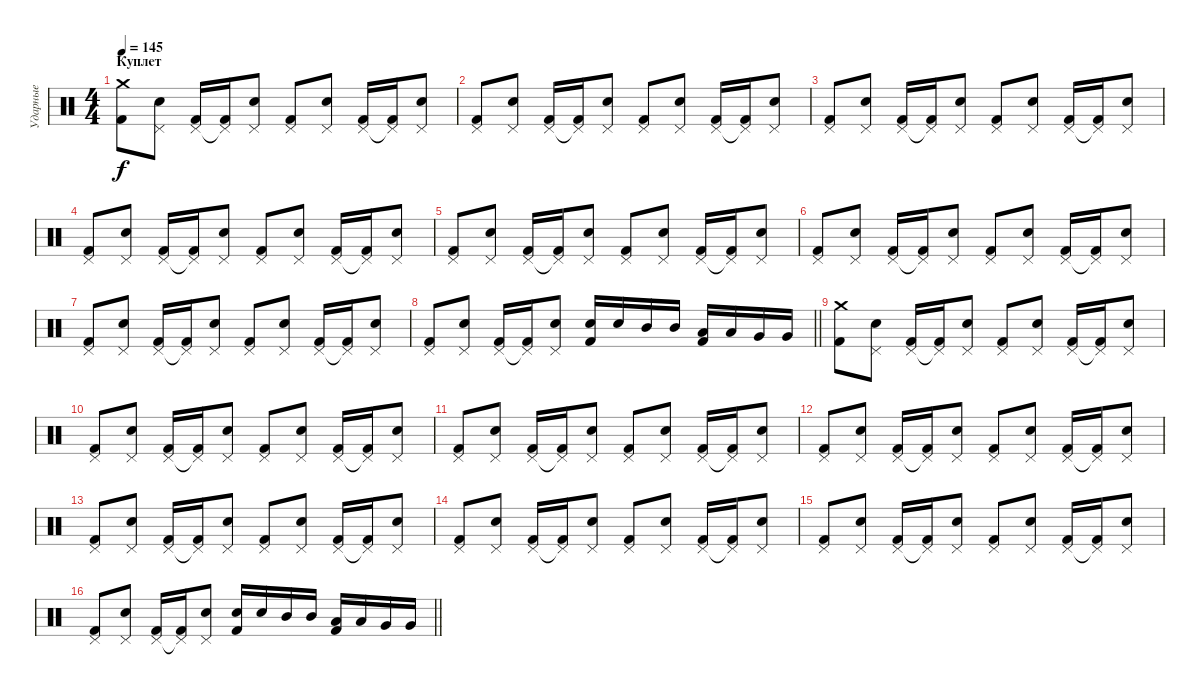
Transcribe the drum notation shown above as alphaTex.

\track ("Ударные" "Ударные") {instrument percussion}
\staff {score}
\articulation defaults
\ts (4 4)
\section ("" "Куплет")
\tempo 145
\clef neutral
\ks c
("Crash medium (hit)" "Kick (hit) 2").8{dy f} ("Pedal Hi-Hat (hit)" "Electric Snare (hit)").8 ("Pedal Hi-Hat (hit)" "Kick (hit) 2").16 ("Pedal Hi-Hat (hit)"{t} "Kick (hit) 2").16 ("Pedal Hi-Hat (hit)" "Electric Snare (hit)").8 ("Pedal Hi-Hat (hit)" "Kick (hit) 2").8 ("Pedal Hi-Hat (hit)" "Electric Snare (hit)").8 ("Pedal Hi-Hat (hit)" "Kick (hit) 2").16 ("Pedal Hi-Hat (hit)"{t} "Kick (hit) 2").16 ("Pedal Hi-Hat (hit)" "Electric Snare (hit)").8 |
("Pedal Hi-Hat (hit)" "Kick (hit) 2").8 ("Pedal Hi-Hat (hit)" "Electric Snare (hit)").8 ("Pedal Hi-Hat (hit)" "Kick (hit) 2").16 ("Pedal Hi-Hat (hit)"{t} "Kick (hit) 2").16 ("Pedal Hi-Hat (hit)" "Electric Snare (hit)").8 ("Pedal Hi-Hat (hit)" "Kick (hit) 2").8 ("Pedal Hi-Hat (hit)" "Electric Snare (hit)").8 ("Pedal Hi-Hat (hit)" "Kick (hit) 2").16 ("Pedal Hi-Hat (hit)"{t} "Kick (hit) 2").16 ("Pedal Hi-Hat (hit)" "Electric Snare (hit)").8 |
("Pedal Hi-Hat (hit)" "Kick (hit) 2").8 ("Pedal Hi-Hat (hit)" "Electric Snare (hit)").8 ("Pedal Hi-Hat (hit)" "Kick (hit) 2").16 ("Pedal Hi-Hat (hit)"{t} "Kick (hit) 2").16 ("Pedal Hi-Hat (hit)" "Electric Snare (hit)").8 ("Pedal Hi-Hat (hit)" "Kick (hit) 2").8 ("Pedal Hi-Hat (hit)" "Electric Snare (hit)").8 ("Pedal Hi-Hat (hit)" "Kick (hit) 2").16 ("Pedal Hi-Hat (hit)"{t} "Kick (hit) 2").16 ("Pedal Hi-Hat (hit)" "Electric Snare (hit)").8 |
("Pedal Hi-Hat (hit)" "Kick (hit) 2").8 ("Pedal Hi-Hat (hit)" "Electric Snare (hit)").8 ("Pedal Hi-Hat (hit)" "Kick (hit) 2").16 ("Pedal Hi-Hat (hit)"{t} "Kick (hit) 2").16 ("Pedal Hi-Hat (hit)" "Electric Snare (hit)").8 ("Pedal Hi-Hat (hit)" "Kick (hit) 2").8 ("Pedal Hi-Hat (hit)" "Electric Snare (hit)").8 ("Pedal Hi-Hat (hit)" "Kick (hit) 2").16 ("Pedal Hi-Hat (hit)"{t} "Kick (hit) 2").16 ("Pedal Hi-Hat (hit)" "Electric Snare (hit)").8 |
("Pedal Hi-Hat (hit)" "Kick (hit) 2").8 ("Pedal Hi-Hat (hit)" "Electric Snare (hit)").8 ("Pedal Hi-Hat (hit)" "Kick (hit) 2").16 ("Pedal Hi-Hat (hit)"{t} "Kick (hit) 2").16 ("Pedal Hi-Hat (hit)" "Electric Snare (hit)").8 ("Pedal Hi-Hat (hit)" "Kick (hit) 2").8 ("Pedal Hi-Hat (hit)" "Electric Snare (hit)").8 ("Pedal Hi-Hat (hit)" "Kick (hit) 2").16 ("Pedal Hi-Hat (hit)"{t} "Kick (hit) 2").16 ("Pedal Hi-Hat (hit)" "Electric Snare (hit)").8 |
("Pedal Hi-Hat (hit)" "Kick (hit) 2").8 ("Pedal Hi-Hat (hit)" "Electric Snare (hit)").8 ("Pedal Hi-Hat (hit)" "Kick (hit) 2").16 ("Pedal Hi-Hat (hit)"{t} "Kick (hit) 2").16 ("Pedal Hi-Hat (hit)" "Electric Snare (hit)").8 ("Pedal Hi-Hat (hit)" "Kick (hit) 2").8 ("Pedal Hi-Hat (hit)" "Electric Snare (hit)").8 ("Pedal Hi-Hat (hit)" "Kick (hit) 2").16 ("Pedal Hi-Hat (hit)"{t} "Kick (hit) 2").16 ("Pedal Hi-Hat (hit)" "Electric Snare (hit)").8 |
("Pedal Hi-Hat (hit)" "Kick (hit) 2").8 ("Pedal Hi-Hat (hit)" "Electric Snare (hit)").8 ("Pedal Hi-Hat (hit)" "Kick (hit) 2").16 ("Pedal Hi-Hat (hit)"{t} "Kick (hit) 2").16 ("Pedal Hi-Hat (hit)" "Electric Snare (hit)").8 ("Pedal Hi-Hat (hit)" "Kick (hit) 2").8 ("Pedal Hi-Hat (hit)" "Electric Snare (hit)").8 ("Pedal Hi-Hat (hit)" "Kick (hit) 2").16 ("Pedal Hi-Hat (hit)"{t} "Kick (hit) 2").16 ("Pedal Hi-Hat (hit)" "Electric Snare (hit)").8 |
\barLineRight lightlight
("Pedal Hi-Hat (hit)" "Kick (hit) 2").8 ("Pedal Hi-Hat (hit)" "Electric Snare (hit)").8 ("Pedal Hi-Hat (hit)" "Kick (hit) 2").16 ("Pedal Hi-Hat (hit)"{t} "Kick (hit) 2").16 ("Pedal Hi-Hat (hit)" "Electric Snare (hit)").8 ("Electric Snare (hit)" "Kick (hit) 2").16 "Electric Snare (hit)".16 "Mid Tom (hit)".16 "Mid Tom (hit)".16 ("Low Tom (hit)" "Kick (hit) 2").16 "Low Tom (hit)".16 "Very Low Tom (hit)".16 "Very Low Tom (hit)".16 |
("Crash medium (hit)" "Kick (hit) 2").8 ("Pedal Hi-Hat (hit)" "Electric Snare (hit)").8 ("Pedal Hi-Hat (hit)" "Kick (hit) 2").16 ("Pedal Hi-Hat (hit)"{t} "Kick (hit) 2").16 ("Pedal Hi-Hat (hit)" "Electric Snare (hit)").8 ("Pedal Hi-Hat (hit)" "Kick (hit) 2").8 ("Pedal Hi-Hat (hit)" "Electric Snare (hit)").8 ("Pedal Hi-Hat (hit)" "Kick (hit) 2").16 ("Pedal Hi-Hat (hit)"{t} "Kick (hit) 2").16 ("Pedal Hi-Hat (hit)" "Electric Snare (hit)").8 |
("Pedal Hi-Hat (hit)" "Kick (hit) 2").8 ("Pedal Hi-Hat (hit)" "Electric Snare (hit)").8 ("Pedal Hi-Hat (hit)" "Kick (hit) 2").16 ("Pedal Hi-Hat (hit)"{t} "Kick (hit) 2").16 ("Pedal Hi-Hat (hit)" "Electric Snare (hit)").8 ("Pedal Hi-Hat (hit)" "Kick (hit) 2").8 ("Pedal Hi-Hat (hit)" "Electric Snare (hit)").8 ("Pedal Hi-Hat (hit)" "Kick (hit) 2").16 ("Pedal Hi-Hat (hit)"{t} "Kick (hit) 2").16 ("Pedal Hi-Hat (hit)" "Electric Snare (hit)").8 |
("Pedal Hi-Hat (hit)" "Kick (hit) 2").8 ("Pedal Hi-Hat (hit)" "Electric Snare (hit)").8 ("Pedal Hi-Hat (hit)" "Kick (hit) 2").16 ("Pedal Hi-Hat (hit)"{t} "Kick (hit) 2").16 ("Pedal Hi-Hat (hit)" "Electric Snare (hit)").8 ("Pedal Hi-Hat (hit)" "Kick (hit) 2").8 ("Pedal Hi-Hat (hit)" "Electric Snare (hit)").8 ("Pedal Hi-Hat (hit)" "Kick (hit) 2").16 ("Pedal Hi-Hat (hit)"{t} "Kick (hit) 2").16 ("Pedal Hi-Hat (hit)" "Electric Snare (hit)").8 |
("Pedal Hi-Hat (hit)" "Kick (hit) 2").8 ("Pedal Hi-Hat (hit)" "Electric Snare (hit)").8 ("Pedal Hi-Hat (hit)" "Kick (hit) 2").16 ("Pedal Hi-Hat (hit)"{t} "Kick (hit) 2").16 ("Pedal Hi-Hat (hit)" "Electric Snare (hit)").8 ("Pedal Hi-Hat (hit)" "Kick (hit) 2").8 ("Pedal Hi-Hat (hit)" "Electric Snare (hit)").8 ("Pedal Hi-Hat (hit)" "Kick (hit) 2").16 ("Pedal Hi-Hat (hit)"{t} "Kick (hit) 2").16 ("Pedal Hi-Hat (hit)" "Electric Snare (hit)").8 |
("Pedal Hi-Hat (hit)" "Kick (hit) 2").8 ("Pedal Hi-Hat (hit)" "Electric Snare (hit)").8 ("Pedal Hi-Hat (hit)" "Kick (hit) 2").16 ("Pedal Hi-Hat (hit)"{t} "Kick (hit) 2").16 ("Pedal Hi-Hat (hit)" "Electric Snare (hit)").8 ("Pedal Hi-Hat (hit)" "Kick (hit) 2").8 ("Pedal Hi-Hat (hit)" "Electric Snare (hit)").8 ("Pedal Hi-Hat (hit)" "Kick (hit) 2").16 ("Pedal Hi-Hat (hit)"{t} "Kick (hit) 2").16 ("Pedal Hi-Hat (hit)" "Electric Snare (hit)").8 |
("Pedal Hi-Hat (hit)" "Kick (hit) 2").8 ("Pedal Hi-Hat (hit)" "Electric Snare (hit)").8 ("Pedal Hi-Hat (hit)" "Kick (hit) 2").16 ("Pedal Hi-Hat (hit)"{t} "Kick (hit) 2").16 ("Pedal Hi-Hat (hit)" "Electric Snare (hit)").8 ("Pedal Hi-Hat (hit)" "Kick (hit) 2").8 ("Pedal Hi-Hat (hit)" "Electric Snare (hit)").8 ("Pedal Hi-Hat (hit)" "Kick (hit) 2").16 ("Pedal Hi-Hat (hit)"{t} "Kick (hit) 2").16 ("Pedal Hi-Hat (hit)" "Electric Snare (hit)").8 |
("Pedal Hi-Hat (hit)" "Kick (hit) 2").8 ("Pedal Hi-Hat (hit)" "Electric Snare (hit)").8 ("Pedal Hi-Hat (hit)" "Kick (hit) 2").16 ("Pedal Hi-Hat (hit)"{t} "Kick (hit) 2").16 ("Pedal Hi-Hat (hit)" "Electric Snare (hit)").8 ("Pedal Hi-Hat (hit)" "Kick (hit) 2").8 ("Pedal Hi-Hat (hit)" "Electric Snare (hit)").8 ("Pedal Hi-Hat (hit)" "Kick (hit) 2").16 ("Pedal Hi-Hat (hit)"{t} "Kick (hit) 2").16 ("Pedal Hi-Hat (hit)" "Electric Snare (hit)").8 |
\barLineRight lightlight
("Pedal Hi-Hat (hit)" "Kick (hit) 2").8 ("Pedal Hi-Hat (hit)" "Electric Snare (hit)").8 ("Pedal Hi-Hat (hit)" "Kick (hit) 2").16 ("Pedal Hi-Hat (hit)"{t} "Kick (hit) 2").16 ("Pedal Hi-Hat (hit)" "Electric Snare (hit)").8 ("Electric Snare (hit)" "Kick (hit) 2").16 "Electric Snare (hit)".16 "Mid Tom (hit)".16 "Mid Tom (hit)".16 ("Low Tom (hit)" "Kick (hit) 2").16 "Low Tom (hit)".16 "Very Low Tom (hit)".16 "Very Low Tom (hit)".16
